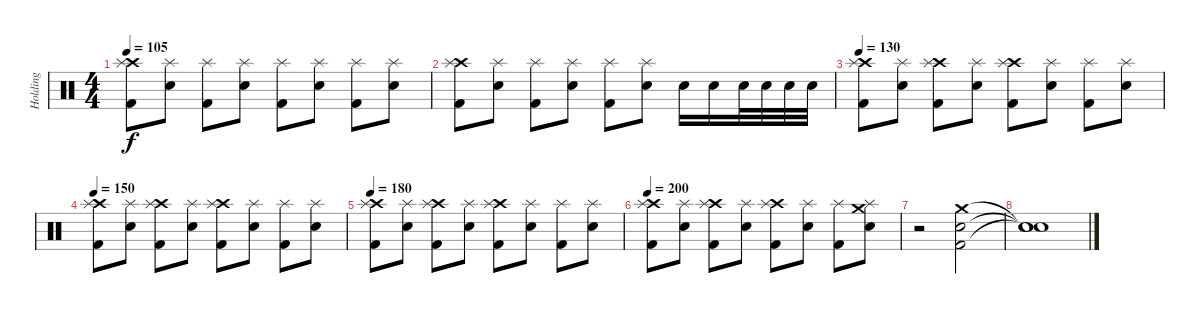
\track ("Holding" "Holding") {instrument percussion}
\staff {score}
\articulation defaults
\ts (4 4)
\tempo 105
\clef neutral
\ks c
("Crash high (hit)" "Splash (hit)" "Kick (hit) 2").8{dy f} ("Splash (hit)" "Electric Snare (hit)").8 ("Splash (hit)" "Kick (hit) 2").8 ("Splash (hit)" "Electric Snare (hit)").8 ("Splash (hit)" "Kick (hit) 2").8 ("Splash (hit)" "Electric Snare (hit)").8 ("Splash (hit)" "Kick (hit) 2").8 ("Splash (hit)" "Electric Snare (hit)").8 |
("Crash high (hit)" "Splash (hit)" "Kick (hit) 2").8 ("Splash (hit)" "Electric Snare (hit)").8 ("Splash (hit)" "Kick (hit) 2").8 ("Splash (hit)" "Electric Snare (hit)").8 ("Splash (hit)" "Kick (hit) 2").8 ("Splash (hit)" "Electric Snare (hit)").8 "Electric Snare (hit)".16 "Electric Snare (hit)".16 "Electric Snare (hit)".32 "Electric Snare (hit)".32 "Electric Snare (hit)".32 "Electric Snare (hit)".32 |
\tempo 130
("Crash high (hit)" "Splash (hit)" "Kick (hit) 2").8 ("Splash (hit)" "Electric Snare (hit)").8 ("Crash high (hit)" "Splash (hit)" "Kick (hit) 2").8 ("Splash (hit)" "Electric Snare (hit)").8 ("Crash high (hit)" "Splash (hit)" "Kick (hit) 2").8 ("Splash (hit)" "Electric Snare (hit)").8 ("Splash (hit)" "Kick (hit) 2").8 ("Splash (hit)" "Electric Snare (hit)").8 |
\tempo 150
("Crash high (hit)" "Splash (hit)" "Kick (hit) 2").8 ("Splash (hit)" "Electric Snare (hit)").8 ("Crash high (hit)" "Splash (hit)" "Kick (hit) 2").8 ("Splash (hit)" "Electric Snare (hit)").8 ("Crash high (hit)" "Splash (hit)" "Kick (hit) 2").8 ("Splash (hit)" "Electric Snare (hit)").8 ("Splash (hit)" "Kick (hit) 2").8 ("Splash (hit)" "Electric Snare (hit)").8 |
\tempo 180
("Crash high (hit)" "Splash (hit)" "Kick (hit) 2").8 ("Splash (hit)" "Electric Snare (hit)").8 ("Crash high (hit)" "Splash (hit)" "Kick (hit) 2").8 ("Splash (hit)" "Electric Snare (hit)").8 ("Crash high (hit)" "Splash (hit)" "Kick (hit) 2").8 ("Splash (hit)" "Electric Snare (hit)").8 ("Splash (hit)" "Kick (hit) 2").8 ("Splash (hit)" "Electric Snare (hit)").8 |
\tempo 200
("Crash high (hit)" "Splash (hit)" "Kick (hit) 2").8 ("Splash (hit)" "Electric Snare (hit)").8 ("Crash high (hit)" "Splash (hit)" "Kick (hit) 2").8 ("Splash (hit)" "Electric Snare (hit)").8 ("Crash high (hit)" "Splash (hit)" "Kick (hit) 2").8 ("Splash (hit)" "Electric Snare (hit)").8 ("Splash (hit)" "Kick (hit) 2").8 ("Crash medium (hit)" "Splash (hit)" "Electric Snare (hit)").8 |
r.2 ("Crash medium (hit)" "Electric Snare (hit)" "Kick (hit) 2").2 |
("Snare (hit)"{t} "Snare (hit)"{t} "Snare (hit)"{t}).1
